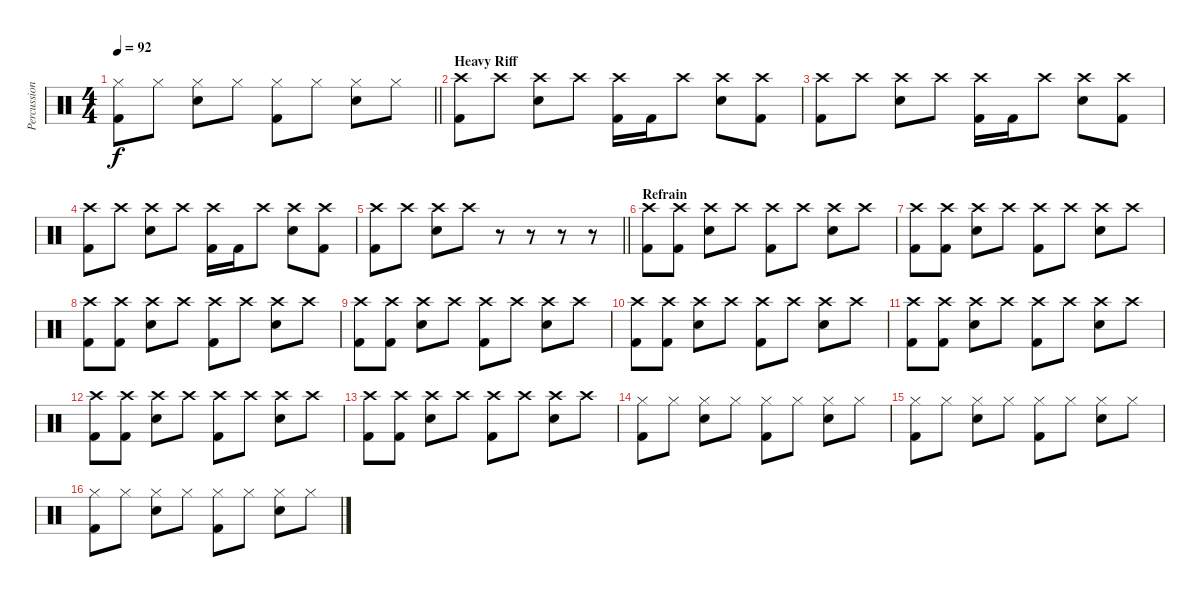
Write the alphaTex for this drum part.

\track ("Percussion" "Percussion") {instrument percussion}
\staff {score}
\articulation defaults
\ts (4 4)
\tempo 92
\clef neutral
\barLineRight lightlight
\ks c
("Kick (hit) 2" "Hi-Hat (closed)").8{dy f} "Hi-Hat (closed)".8 ("Electric Snare (hit)" "Hi-Hat (closed)").8 "Hi-Hat (closed)".8 ("Kick (hit) 2" "Hi-Hat (closed)").8 "Hi-Hat (closed)".8 ("Electric Snare (hit)" "Hi-Hat (closed)").8 "Hi-Hat (closed)".8 |
\section ("" "Heavy Riff")
("Kick (hit) 2" "Crash high (hit)").8 "Crash high (hit)".8 ("Snare (hit) 2" "Crash high (hit)").8 "Crash high (hit)".8 ("Kick (hit) 2" "Crash high (hit)").16 "Kick (hit) 2".16 "Crash high (hit)".8 ("Snare (hit) 2" "Crash high (hit)").8 ("Kick (hit) 2" "Crash high (hit)").8 |
("Kick (hit) 2" "Crash high (hit)").8 "Crash high (hit)".8 ("Snare (hit) 2" "Crash high (hit)").8 "Crash high (hit)".8 ("Kick (hit) 2" "Crash high (hit)").16 "Kick (hit) 2".16 "Crash high (hit)".8 ("Snare (hit) 2" "Crash high (hit)").8 ("Kick (hit) 2" "Crash high (hit)").8 |
("Kick (hit) 2" "Crash high (hit)").8 "Crash high (hit)".8 ("Snare (hit) 2" "Crash high (hit)").8 "Crash high (hit)".8 ("Kick (hit) 2" "Crash high (hit)").16 "Kick (hit) 2".16 "Crash high (hit)".8 ("Snare (hit) 2" "Crash high (hit)").8 ("Kick (hit) 2" "Crash high (hit)").8 |
\barLineRight lightlight
("Kick (hit) 2" "Crash high (hit)").8 "Crash high (hit)".8 ("Snare (hit) 2" "Crash high (hit)").8 "Crash high (hit)".8 r.8 r.8 r.8 r.8 |
\section ("" "Refrain")
("Kick (hit) 2" "Crash high (hit)").8 ("Kick (hit) 2" "Crash high (hit)").8 ("Snare (hit) 2" "Crash high (hit)").8 "Crash high (hit)".8 ("Kick (hit) 2" "Crash high (hit)").8 "Crash high (hit)".8 ("Snare (hit) 2" "Crash high (hit)").8 "Crash high (hit)".8 |
("Kick (hit) 2" "Crash high (hit)").8 ("Kick (hit) 2" "Crash high (hit)").8 ("Snare (hit) 2" "Crash high (hit)").8 "Crash high (hit)".8 ("Kick (hit) 2" "Crash high (hit)").8 "Crash high (hit)".8 ("Snare (hit) 2" "Crash high (hit)").8 "Crash high (hit)".8 |
("Kick (hit) 2" "Crash high (hit)").8 ("Kick (hit) 2" "Crash high (hit)").8 ("Snare (hit) 2" "Crash high (hit)").8 "Crash high (hit)".8 ("Kick (hit) 2" "Crash high (hit)").8 "Crash high (hit)".8 ("Snare (hit) 2" "Crash high (hit)").8 "Crash high (hit)".8 |
("Kick (hit) 2" "Crash high (hit)").8 ("Kick (hit) 2" "Crash high (hit)").8 ("Snare (hit) 2" "Crash high (hit)").8 "Crash high (hit)".8 ("Kick (hit) 2" "Crash high (hit)").8 "Crash high (hit)".8 ("Snare (hit) 2" "Crash high (hit)").8 "Crash high (hit)".8 |
("Kick (hit) 2" "Crash high (hit)").8 ("Kick (hit) 2" "Crash high (hit)").8 ("Snare (hit) 2" "Crash high (hit)").8 "Crash high (hit)".8 ("Kick (hit) 2" "Crash high (hit)").8 "Crash high (hit)".8 ("Snare (hit) 2" "Crash high (hit)").8 "Crash high (hit)".8 |
("Kick (hit) 2" "Crash high (hit)").8 ("Kick (hit) 2" "Crash high (hit)").8 ("Snare (hit) 2" "Crash high (hit)").8 "Crash high (hit)".8 ("Kick (hit) 2" "Crash high (hit)").8 "Crash high (hit)".8 ("Snare (hit) 2" "Crash high (hit)").8 "Crash high (hit)".8 |
("Kick (hit) 2" "Crash high (hit)").8 ("Kick (hit) 2" "Crash high (hit)").8 ("Snare (hit) 2" "Crash high (hit)").8 "Crash high (hit)".8 ("Kick (hit) 2" "Crash high (hit)").8 "Crash high (hit)".8 ("Snare (hit) 2" "Crash high (hit)").8 "Crash high (hit)".8 |
("Kick (hit) 2" "Crash high (hit)").8 ("Kick (hit) 2" "Crash high (hit)").8 ("Snare (hit) 2" "Crash high (hit)").8 "Crash high (hit)".8 ("Kick (hit) 2" "Crash high (hit)").8 "Crash high (hit)".8 ("Snare (hit) 2" "Crash high (hit)").8 "Crash high (hit)".8 |
("Kick (hit) 2" "Hi-Hat (closed)").8 "Hi-Hat (closed)".8 ("Electric Snare (hit)" "Hi-Hat (closed)").8 "Hi-Hat (closed)".8 ("Kick (hit) 2" "Hi-Hat (closed)").8 "Hi-Hat (closed)".8 ("Electric Snare (hit)" "Hi-Hat (closed)").8 "Hi-Hat (closed)".8 |
("Kick (hit) 2" "Hi-Hat (closed)").8 "Hi-Hat (closed)".8 ("Electric Snare (hit)" "Hi-Hat (closed)").8 "Hi-Hat (closed)".8 ("Kick (hit) 2" "Hi-Hat (closed)").8 "Hi-Hat (closed)".8 ("Electric Snare (hit)" "Hi-Hat (closed)").8 "Hi-Hat (closed)".8 |
("Kick (hit) 2" "Hi-Hat (closed)").8 "Hi-Hat (closed)".8 ("Electric Snare (hit)" "Hi-Hat (closed)").8 "Hi-Hat (closed)".8 ("Kick (hit) 2" "Hi-Hat (closed)").8 "Hi-Hat (closed)".8 ("Electric Snare (hit)" "Hi-Hat (closed)").8 "Hi-Hat (closed)".8
